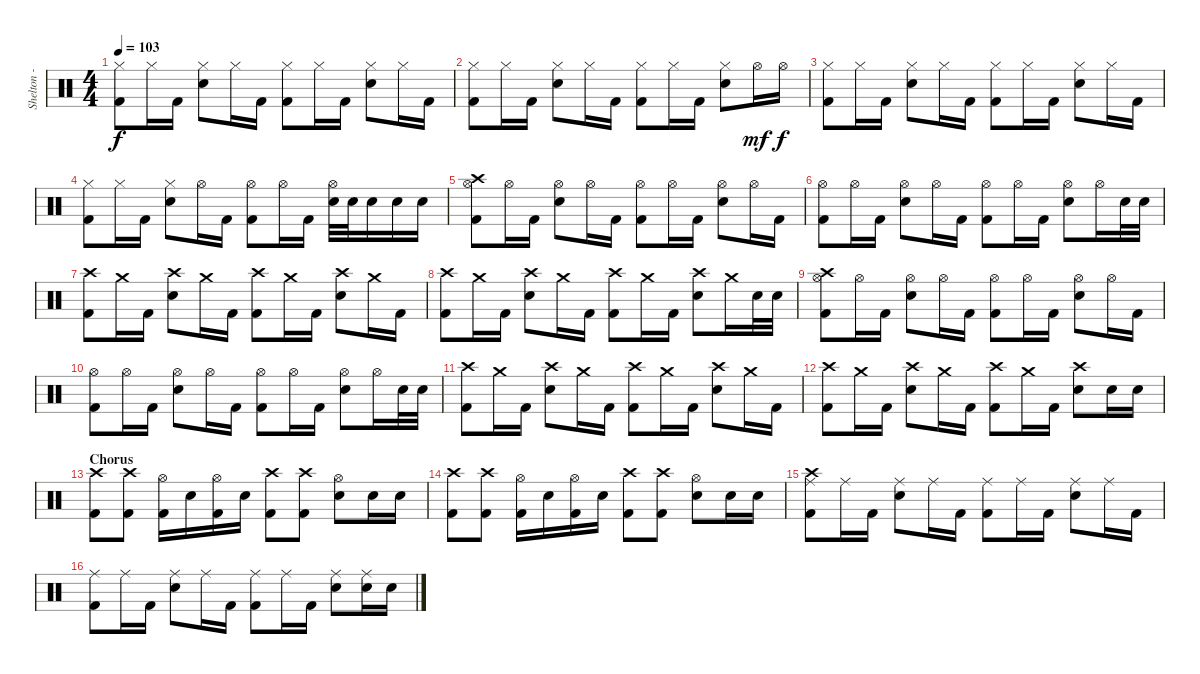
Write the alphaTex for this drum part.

\track ("Shelton - Drums" "Shelton - ") {instrument percussion}
\staff {score}
\articulation defaults
\ts (4 4)
\tempo 103
\clef neutral
\ks c
("Hi-Hat (closed)" "Kick (hit) 2").8{dy f} "Hi-Hat (closed)".16 "Kick (hit) 2".16 ("Hi-Hat (closed)" "Electric Snare (hit)").8 "Hi-Hat (closed)".16 "Kick (hit) 2".16 ("Hi-Hat (closed)" "Kick (hit) 2").8 "Hi-Hat (closed)".16 "Kick (hit) 2".16 ("Hi-Hat (closed)" "Electric Snare (hit)").8 "Hi-Hat (closed)".16 "Kick (hit) 2".16 |
("Hi-Hat (closed)" "Kick (hit) 2").8 "Hi-Hat (closed)".16 "Kick (hit) 2".16 ("Hi-Hat (closed)" "Electric Snare (hit)").8 "Hi-Hat (closed)".16 "Kick (hit) 2".16 ("Hi-Hat (closed)" "Kick (hit) 2").8 "Hi-Hat (closed)".16 "Kick (hit) 2".16 ("Hi-Hat (closed)" "Electric Snare (hit)").8 "Hi-Hat (open)".16{dy mf} "Hi-Hat (open)".16{dy f} |
("Hi-Hat (closed)" "Kick (hit) 2").8 "Hi-Hat (closed)".16 "Kick (hit) 2".16 ("Hi-Hat (closed)" "Electric Snare (hit)").8 "Hi-Hat (closed)".16 "Kick (hit) 2".16 ("Hi-Hat (closed)" "Kick (hit) 2").8 "Hi-Hat (closed)".16 "Kick (hit) 2".16 ("Hi-Hat (closed)" "Electric Snare (hit)").8 "Hi-Hat (closed)".16 "Kick (hit) 2".16 |
("Hi-Hat (closed)" "Kick (hit) 2").8 "Hi-Hat (closed)".16 "Kick (hit) 2".16 ("Hi-Hat (closed)" "Electric Snare (hit)").8 "Hi-Hat (open)".16 "Kick (hit) 2".16 ("Hi-Hat (open)" "Kick (hit) 2").8 "Hi-Hat (open)".16 "Kick (hit) 2".16 ("Hi-Hat (open)" "Electric Snare (hit)").32 "Electric Snare (hit)".32 "Electric Snare (hit)".16 "Electric Snare (hit)".16 "Electric Snare (hit)".16 |
("Hi-Hat (open)" "Crash high (hit)" "Kick (hit) 2").8 "Hi-Hat (open)".16 "Kick (hit) 2".16 ("Hi-Hat (open)" "Electric Snare (hit)").8 "Hi-Hat (open)".16 "Kick (hit) 2".16 ("Hi-Hat (open)" "Kick (hit) 2").8 "Hi-Hat (open)".16 "Kick (hit) 2".16 ("Hi-Hat (open)" "Electric Snare (hit)").8 "Hi-Hat (open)".16 "Kick (hit) 2".16 |
("Hi-Hat (open)" "Kick (hit) 2").8 "Hi-Hat (open)".16 "Kick (hit) 2".16 ("Hi-Hat (open)" "Electric Snare (hit)").8 "Hi-Hat (open)".16 "Kick (hit) 2".16 ("Hi-Hat (open)" "Kick (hit) 2").8 "Hi-Hat (open)".16 "Kick (hit) 2".16 ("Hi-Hat (open)" "Electric Snare (hit)").8 "Hi-Hat (open)".16 "Electric Snare (hit)".32 "Electric Snare (hit)".32 |
("Crash high (hit)" "Kick (hit) 2").8 "Crash medium (hit)".16 "Kick (hit) 2".16 ("Crash high (hit)" "Electric Snare (hit)").8 "Crash medium (hit)".16 "Kick (hit) 2".16 ("Crash high (hit)" "Kick (hit) 2").8 "Crash medium (hit)".16 "Kick (hit) 2".16 ("Crash high (hit)" "Electric Snare (hit)").8 "Crash medium (hit)".16 "Kick (hit) 2".16 |
("Crash high (hit)" "Kick (hit) 2").8 "Crash medium (hit)".16 "Kick (hit) 2".16 ("Crash high (hit)" "Electric Snare (hit)").8 "Crash medium (hit)".16 "Kick (hit) 2".16 ("Crash high (hit)" "Kick (hit) 2").8 "Crash medium (hit)".16 "Kick (hit) 2".16 ("Crash high (hit)" "Electric Snare (hit)").8 "Crash medium (hit)".16 "Electric Snare (hit)".32 "Electric Snare (hit)".32 |
("Hi-Hat (open)" "Crash high (hit)" "Kick (hit) 2").8 "Hi-Hat (open)".16 "Kick (hit) 2".16 ("Hi-Hat (open)" "Electric Snare (hit)").8 "Hi-Hat (open)".16 "Kick (hit) 2".16 ("Hi-Hat (open)" "Kick (hit) 2").8 "Hi-Hat (open)".16 "Kick (hit) 2".16 ("Hi-Hat (open)" "Electric Snare (hit)").8 "Hi-Hat (open)".16 "Kick (hit) 2".16 |
("Hi-Hat (open)" "Kick (hit) 2").8 "Hi-Hat (open)".16 "Kick (hit) 2".16 ("Hi-Hat (open)" "Electric Snare (hit)").8 "Hi-Hat (open)".16 "Kick (hit) 2".16 ("Hi-Hat (open)" "Kick (hit) 2").8 "Hi-Hat (open)".16 "Kick (hit) 2".16 ("Hi-Hat (open)" "Electric Snare (hit)").8 "Hi-Hat (open)".16 "Electric Snare (hit)".32 "Electric Snare (hit)".32 |
("Crash high (hit)" "Kick (hit) 2").8 "Crash medium (hit)".16 "Kick (hit) 2".16 ("Crash high (hit)" "Electric Snare (hit)").8 "Crash medium (hit)".16 "Kick (hit) 2".16 ("Crash high (hit)" "Kick (hit) 2").8 "Crash medium (hit)".16 "Kick (hit) 2".16 ("Crash high (hit)" "Electric Snare (hit)").8 "Crash medium (hit)".16 "Kick (hit) 2".16 |
("Crash high (hit)" "Kick (hit) 2").8 "Crash medium (hit)".16 "Kick (hit) 2".16 ("Crash high (hit)" "Electric Snare (hit)").8 "Crash medium (hit)".16 "Kick (hit) 2".16 ("Crash high (hit)" "Kick (hit) 2").8 "Crash medium (hit)".16 "Kick (hit) 2".16 ("Crash high (hit)" "Electric Snare (hit)").8 "Electric Snare (hit)".16 "Electric Snare (hit)".16 |
\section ("" "Chorus")
("Crash high (hit)" "Kick (hit) 2").8 ("Crash high (hit)" "Kick (hit) 2").8 ("Hi-Hat (open)" "Kick (hit) 2").16 "Electric Snare (hit)".16 ("Hi-Hat (open)" "Kick (hit) 2").16 "Electric Snare (hit)".16 ("Crash high (hit)" "Kick (hit) 2").8 ("Crash high (hit)" "Kick (hit) 2").8 ("Hi-Hat (open)" "Electric Snare (hit)").8 "Electric Snare (hit)".16 "Electric Snare (hit)".16 |
("Crash high (hit)" "Kick (hit) 2").8 ("Crash high (hit)" "Kick (hit) 2").8 ("Hi-Hat (open)" "Kick (hit) 2").16 "Electric Snare (hit)".16 ("Hi-Hat (open)" "Kick (hit) 2").16 "Electric Snare (hit)".16 ("Crash high (hit)" "Kick (hit) 2").8 ("Crash high (hit)" "Kick (hit) 2").8 ("Hi-Hat (open)" "Electric Snare (hit)").8 "Electric Snare (hit)".16 "Electric Snare (hit)".16 |
("Ride (middle)" "Crash high (hit)" "Kick (hit) 2").8 "Ride (middle)".16 "Kick (hit) 2".16 ("Ride (middle)" "Electric Snare (hit)").8 "Ride (middle)".16 "Kick (hit) 2".16 ("Ride (middle)" "Kick (hit) 2").8 "Ride (middle)".16 "Kick (hit) 2".16 ("Ride (middle)" "Electric Snare (hit)").8 "Ride (middle)".16 "Kick (hit) 2".16 |
("Ride (middle)" "Kick (hit) 2").8 "Ride (middle)".16 "Kick (hit) 2".16 ("Ride (middle)" "Electric Snare (hit)").8 "Ride (middle)".16 "Kick (hit) 2".16 ("Ride (middle)" "Kick (hit) 2").8 "Ride (middle)".16 "Kick (hit) 2".16 ("Ride (middle)" "Electric Snare (hit)").8 ("Ride (middle)" "Electric Snare (hit)").16 "Electric Snare (hit)".16
